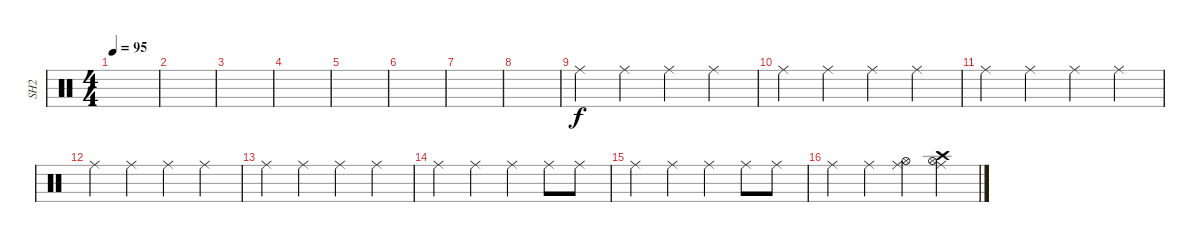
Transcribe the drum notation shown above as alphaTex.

\track ("SH2" "SH2") {instrument percussion}
\staff {score}
\articulation defaults
\ts (4 4)
\tempo 95
\clef neutral
\ks c
|
|
|
|
|
|
|
|
"Ride (middle)".4{volume 16} "Ride (middle)".4 "Ride (middle)".4 "Ride (middle)".4 |
"Ride (middle)".4{volume 14} "Ride (middle)".4 "Ride (middle)".4 "Ride (middle)".4 |
"Ride (middle)".4 "Ride (middle)".4 "Ride (middle)".4 "Ride (middle)".4 |
"Ride (middle)".4 "Ride (middle)".4 "Ride (middle)".4 "Ride (middle)".4 |
"Ride (middle)".4 "Ride (middle)".4 "Ride (middle)".4 "Ride (middle)".4 |
"Ride (middle)".4 "Ride (middle)".4 "Ride (middle)".4 "Ride (middle)".8 "Ride (middle)".8 |
"Ride (middle)".4 "Ride (middle)".4 "Ride (middle)".4 "Ride (middle)".8 "Ride (middle)".8 |
"Ride (middle)".4 "Ride (middle)".4 ("Ride (middle)" "Hi-Hat (open)").4 ("Ride (middle)" "Hi-Hat (open)" "Crash high (hit)").4
